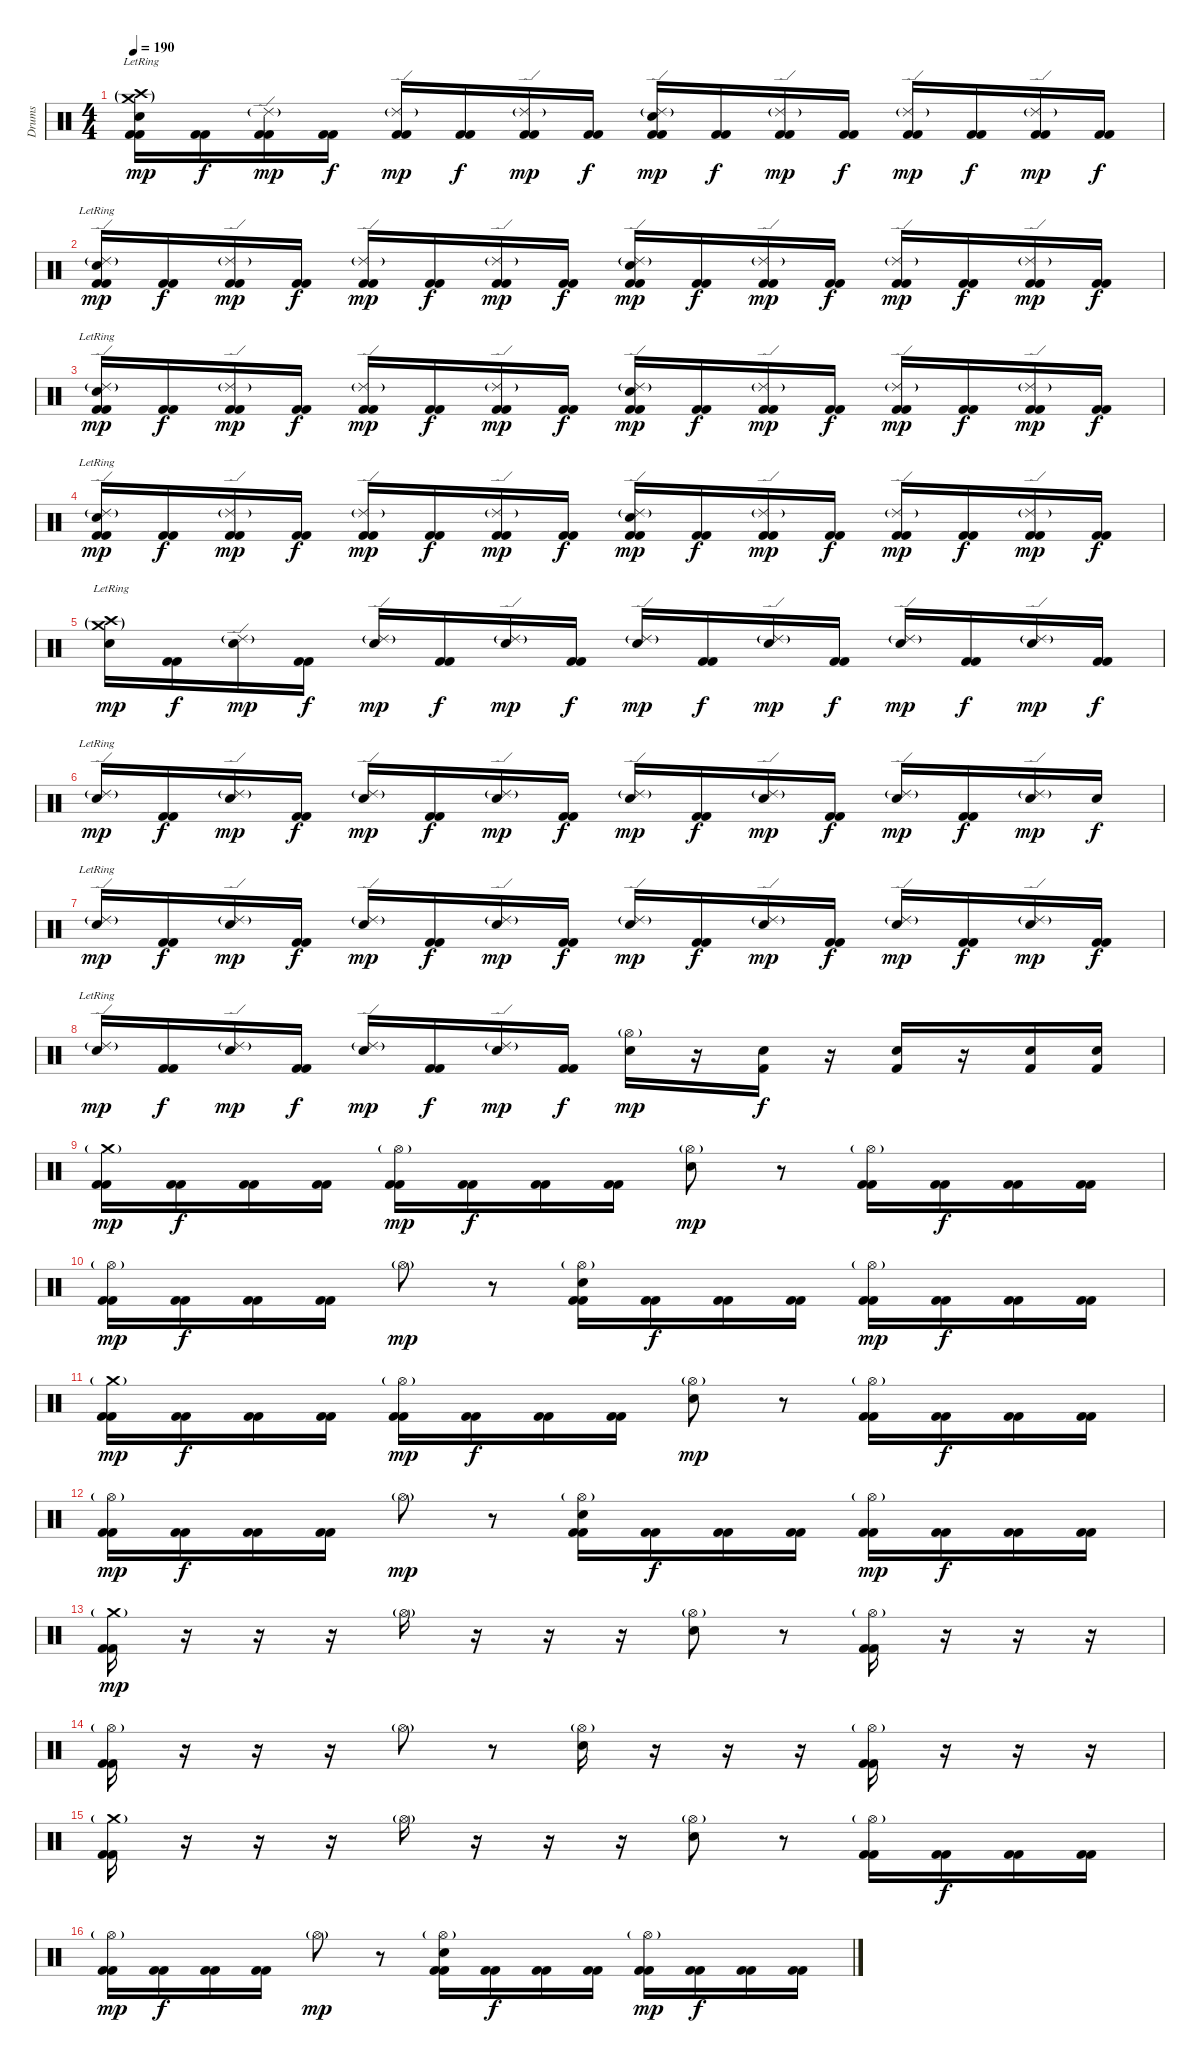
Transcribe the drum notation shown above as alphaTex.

\track ("Drums" "Drums") {instrument percussion}
\staff {score}
\articulation defaults
\ts (4 4)
\tempo 190
\clef neutral
\ks c
("Crash medium (hit)"{g lr} "Crash high (hit)"{g} "Kick (hit) 2" "Kick (hit) 2" "Electric Snare (hit)").16{dy mp} ("Kick (hit) 2" "Kick (hit) 2").16{dy f} ("Ride (edge) 2"{g} "Kick (hit) 2" "Kick (hit) 2").16{dy mp} ("Kick (hit) 2" "Kick (hit) 2").16{dy f} ("Ride (edge) 2"{g} "Kick (hit) 2" "Kick (hit) 2").16{dy mp} ("Kick (hit) 2" "Kick (hit) 2").16{dy f} ("Ride (edge) 2"{g} "Kick (hit) 2" "Kick (hit) 2").16{dy mp} ("Kick (hit) 2" "Kick (hit) 2").16{dy f} ("Ride (edge) 2"{g} "Kick (hit) 2" "Kick (hit) 2" "Electric Snare (hit)").16{dy mp} ("Kick (hit) 2" "Kick (hit) 2").16{dy f} ("Ride (edge) 2"{g} "Kick (hit) 2" "Kick (hit) 2").16{dy mp} ("Kick (hit) 2" "Kick (hit) 2").16{dy f} ("Ride (edge) 2"{g} "Kick (hit) 2" "Kick (hit) 2").16{dy mp} ("Kick (hit) 2" "Kick (hit) 2").16{dy f} ("Ride (edge) 2"{g} "Kick (hit) 2" "Kick (hit) 2").16{dy mp} ("Kick (hit) 2" "Kick (hit) 2").16{dy f} |
("Ride (edge) 2"{g lr} "Kick (hit) 2" "Kick (hit) 2" "Electric Snare (hit)").16{dy mp} ("Kick (hit) 2" "Kick (hit) 2").16{dy f} ("Ride (edge) 2"{g} "Kick (hit) 2" "Kick (hit) 2").16{dy mp} ("Kick (hit) 2" "Kick (hit) 2").16{dy f} ("Ride (edge) 2"{g} "Kick (hit) 2" "Kick (hit) 2").16{dy mp} ("Kick (hit) 2" "Kick (hit) 2").16{dy f} ("Ride (edge) 2"{g} "Kick (hit) 2" "Kick (hit) 2").16{dy mp} ("Kick (hit) 2" "Kick (hit) 2").16{dy f} ("Ride (edge) 2"{g} "Kick (hit) 2" "Kick (hit) 2" "Electric Snare (hit)").16{dy mp} ("Kick (hit) 2" "Kick (hit) 2").16{dy f} ("Ride (edge) 2"{g} "Kick (hit) 2" "Kick (hit) 2").16{dy mp} ("Kick (hit) 2" "Kick (hit) 2").16{dy f} ("Ride (edge) 2"{g} "Kick (hit) 2" "Kick (hit) 2").16{dy mp} ("Kick (hit) 2" "Kick (hit) 2").16{dy f} ("Ride (edge) 2"{g} "Kick (hit) 2" "Kick (hit) 2").16{dy mp} ("Kick (hit) 2" "Kick (hit) 2").16{dy f} |
("Ride (edge) 2"{g lr} "Kick (hit) 2" "Kick (hit) 2" "Electric Snare (hit)").16{dy mp} ("Kick (hit) 2" "Kick (hit) 2").16{dy f} ("Ride (edge) 2"{g} "Kick (hit) 2" "Kick (hit) 2").16{dy mp} ("Kick (hit) 2" "Kick (hit) 2").16{dy f} ("Ride (edge) 2"{g} "Kick (hit) 2" "Kick (hit) 2").16{dy mp} ("Kick (hit) 2" "Kick (hit) 2").16{dy f} ("Ride (edge) 2"{g} "Kick (hit) 2" "Kick (hit) 2").16{dy mp} ("Kick (hit) 2" "Kick (hit) 2").16{dy f} ("Ride (edge) 2"{g} "Kick (hit) 2" "Kick (hit) 2" "Electric Snare (hit)").16{dy mp} ("Kick (hit) 2" "Kick (hit) 2").16{dy f} ("Ride (edge) 2"{g} "Kick (hit) 2" "Kick (hit) 2").16{dy mp} ("Kick (hit) 2" "Kick (hit) 2").16{dy f} ("Ride (edge) 2"{g} "Kick (hit) 2" "Kick (hit) 2").16{dy mp} ("Kick (hit) 2" "Kick (hit) 2").16{dy f} ("Ride (edge) 2"{g} "Kick (hit) 2" "Kick (hit) 2").16{dy mp} ("Kick (hit) 2" "Kick (hit) 2").16{dy f} |
("Ride (edge) 2"{g lr} "Kick (hit) 2" "Kick (hit) 2" "Electric Snare (hit)").16{dy mp} ("Kick (hit) 2" "Kick (hit) 2").16{dy f} ("Ride (edge) 2"{g} "Kick (hit) 2" "Kick (hit) 2").16{dy mp} ("Kick (hit) 2" "Kick (hit) 2").16{dy f} ("Ride (edge) 2"{g} "Kick (hit) 2" "Kick (hit) 2").16{dy mp} ("Kick (hit) 2" "Kick (hit) 2").16{dy f} ("Ride (edge) 2"{g} "Kick (hit) 2" "Kick (hit) 2").16{dy mp} ("Kick (hit) 2" "Kick (hit) 2").16{dy f} ("Ride (edge) 2"{g} "Kick (hit) 2" "Kick (hit) 2" "Electric Snare (hit)").16{dy mp} ("Kick (hit) 2" "Kick (hit) 2").16{dy f} ("Ride (edge) 2"{g} "Kick (hit) 2" "Kick (hit) 2").16{dy mp} ("Kick (hit) 2" "Kick (hit) 2").16{dy f} ("Ride (edge) 2"{g} "Kick (hit) 2" "Kick (hit) 2").16{dy mp} ("Kick (hit) 2" "Kick (hit) 2").16{dy f} ("Ride (edge) 2"{g} "Kick (hit) 2" "Kick (hit) 2").16{dy mp} ("Kick (hit) 2" "Kick (hit) 2").16{dy f} |
("Crash medium (hit)"{g lr} "Crash high (hit)"{g} "Electric Snare (hit)").16{dy mp} ("Kick (hit) 2" "Kick (hit) 2").16{dy f} ("Ride (edge) 2"{g} "Electric Snare (hit)").16{dy mp} ("Kick (hit) 2" "Kick (hit) 2").16{dy f} ("Ride (edge) 2"{g} "Electric Snare (hit)").16{dy mp} ("Kick (hit) 2" "Kick (hit) 2").16{dy f} ("Ride (edge) 2"{g} "Electric Snare (hit)").16{dy mp} ("Kick (hit) 2" "Kick (hit) 2").16{dy f} ("Ride (edge) 2"{g} "Electric Snare (hit)").16{dy mp} ("Kick (hit) 2" "Kick (hit) 2").16{dy f} ("Ride (edge) 2"{g} "Electric Snare (hit)").16{dy mp} ("Kick (hit) 2" "Kick (hit) 2").16{dy f} ("Ride (edge) 2"{g} "Electric Snare (hit)").16{dy mp} ("Kick (hit) 2" "Kick (hit) 2").16{dy f} ("Ride (edge) 2"{g} "Electric Snare (hit)").16{dy mp} ("Kick (hit) 2" "Kick (hit) 2").16{dy f} |
("Ride (edge) 2"{g lr} "Electric Snare (hit)").16{dy mp} ("Kick (hit) 2" "Kick (hit) 2").16{dy f} ("Ride (edge) 2"{g} "Electric Snare (hit)").16{dy mp} ("Kick (hit) 2" "Kick (hit) 2").16{dy f} ("Ride (edge) 2"{g} "Electric Snare (hit)").16{dy mp} ("Kick (hit) 2" "Kick (hit) 2").16{dy f} ("Ride (edge) 2"{g} "Electric Snare (hit)").16{dy mp} ("Kick (hit) 2" "Kick (hit) 2").16{dy f} ("Ride (edge) 2"{g} "Electric Snare (hit)").16{dy mp} ("Kick (hit) 2" "Kick (hit) 2").16{dy f} ("Ride (edge) 2"{g} "Electric Snare (hit)").16{dy mp} ("Kick (hit) 2" "Kick (hit) 2").16{dy f} ("Ride (edge) 2"{g} "Electric Snare (hit)").16{dy mp} ("Kick (hit) 2" "Kick (hit) 2").16{dy f} ("Ride (edge) 2"{g} "Electric Snare (hit)").16{dy mp} "Electric Snare (hit)".16{dy f} |
("Ride (edge) 2"{g lr} "Electric Snare (hit)").16{dy mp} ("Kick (hit) 2" "Kick (hit) 2").16{dy f} ("Ride (edge) 2"{g} "Electric Snare (hit)").16{dy mp} ("Kick (hit) 2" "Kick (hit) 2").16{dy f} ("Ride (edge) 2"{g} "Electric Snare (hit)").16{dy mp} ("Kick (hit) 2" "Kick (hit) 2").16{dy f} ("Ride (edge) 2"{g} "Electric Snare (hit)").16{dy mp} ("Kick (hit) 2" "Kick (hit) 2").16{dy f} ("Ride (edge) 2"{g} "Electric Snare (hit)").16{dy mp} ("Kick (hit) 2" "Kick (hit) 2").16{dy f} ("Ride (edge) 2"{g} "Electric Snare (hit)").16{dy mp} ("Kick (hit) 2" "Kick (hit) 2").16{dy f} ("Ride (edge) 2"{g} "Electric Snare (hit)").16{dy mp} ("Kick (hit) 2" "Kick (hit) 2").16{dy f} ("Ride (edge) 2"{g} "Electric Snare (hit)").16{dy mp} ("Kick (hit) 2" "Kick (hit) 2").16{dy f} |
("Ride (edge) 2"{g lr} "Electric Snare (hit)").16{dy mp} ("Kick (hit) 2" "Kick (hit) 2").16{dy f} ("Ride (edge) 2"{g} "Electric Snare (hit)").16{dy mp} ("Kick (hit) 2" "Kick (hit) 2").16{dy f} ("Ride (edge) 2"{g} "Electric Snare (hit)").16{dy mp} ("Kick (hit) 2" "Kick (hit) 2").16{dy f} ("Ride (edge) 2"{g} "Electric Snare (hit)").16{dy mp} ("Kick (hit) 2" "Kick (hit) 2").16{dy f} ("Hi-Hat (open)"{g} "Electric Snare (hit)").16{dy mp} r.16 ("Kick (hit) 2" "Electric Snare (hit)").16{dy f} r.16 ("Kick (hit) 2" "Electric Snare (hit)").16 r.16 ("Kick (hit) 2" "Electric Snare (hit)").16 ("Kick (hit) 2" "Electric Snare (hit)").16 |
("Crash medium (hit)"{g} "Kick (hit) 2" "Kick (hit) 2").16{dy mp} ("Kick (hit) 2" "Kick (hit) 2").16{dy f} ("Kick (hit) 2" "Kick (hit) 2").16 ("Kick (hit) 2" "Kick (hit) 2").16 ("Hi-Hat (open)"{g} "Kick (hit) 2" "Kick (hit) 2").16{dy mp} ("Kick (hit) 2" "Kick (hit) 2").16{dy f} ("Kick (hit) 2" "Kick (hit) 2").16 ("Kick (hit) 2" "Kick (hit) 2").16 ("Hi-Hat (open)"{g} "Electric Snare (hit)").8{dy mp} r.8 ("Hi-Hat (open)"{g} "Kick (hit) 2" "Kick (hit) 2").16 ("Kick (hit) 2" "Kick (hit) 2").16{dy f} ("Kick (hit) 2" "Kick (hit) 2").16 ("Kick (hit) 2" "Kick (hit) 2").16 |
("Hi-Hat (open)"{g} "Kick (hit) 2" "Kick (hit) 2").16{dy mp} ("Kick (hit) 2" "Kick (hit) 2").16{dy f} ("Kick (hit) 2" "Kick (hit) 2").16 ("Kick (hit) 2" "Kick (hit) 2").16 "Hi-Hat (open)"{g}.8{dy mp} r.8 ("Hi-Hat (open)"{g} "Kick (hit) 2" "Electric Snare (hit)" "Kick (hit) 2").16 ("Kick (hit) 2" "Kick (hit) 2").16{dy f} ("Kick (hit) 2" "Kick (hit) 2").16 ("Kick (hit) 2" "Kick (hit) 2").16 ("Hi-Hat (open)"{g} "Kick (hit) 2" "Kick (hit) 2").16{dy mp} ("Kick (hit) 2" "Kick (hit) 2").16{dy f} ("Kick (hit) 2" "Kick (hit) 2").16 ("Kick (hit) 2" "Kick (hit) 2").16 |
("Crash medium (hit)"{g} "Kick (hit) 2" "Kick (hit) 2").16{dy mp} ("Kick (hit) 2" "Kick (hit) 2").16{dy f} ("Kick (hit) 2" "Kick (hit) 2").16 ("Kick (hit) 2" "Kick (hit) 2").16 ("Hi-Hat (open)"{g} "Kick (hit) 2" "Kick (hit) 2").16{dy mp} ("Kick (hit) 2" "Kick (hit) 2").16{dy f} ("Kick (hit) 2" "Kick (hit) 2").16 ("Kick (hit) 2" "Kick (hit) 2").16 ("Hi-Hat (open)"{g} "Electric Snare (hit)").8{dy mp} r.8 ("Hi-Hat (open)"{g} "Kick (hit) 2" "Kick (hit) 2").16 ("Kick (hit) 2" "Kick (hit) 2").16{dy f} ("Kick (hit) 2" "Kick (hit) 2").16 ("Kick (hit) 2" "Kick (hit) 2").16 |
("Hi-Hat (open)"{g} "Kick (hit) 2" "Kick (hit) 2").16{dy mp} ("Kick (hit) 2" "Kick (hit) 2").16{dy f} ("Kick (hit) 2" "Kick (hit) 2").16 ("Kick (hit) 2" "Kick (hit) 2").16 "Hi-Hat (open)"{g}.8{dy mp} r.8 ("Hi-Hat (open)"{g} "Kick (hit) 2" "Electric Snare (hit)" "Kick (hit) 2").16 ("Kick (hit) 2" "Kick (hit) 2").16{dy f} ("Kick (hit) 2" "Kick (hit) 2").16 ("Kick (hit) 2" "Kick (hit) 2").16 ("Hi-Hat (open)"{g} "Kick (hit) 2" "Kick (hit) 2").16{dy mp} ("Kick (hit) 2" "Kick (hit) 2").16{dy f} ("Kick (hit) 2" "Kick (hit) 2").16 ("Kick (hit) 2" "Kick (hit) 2").16 |
("Crash medium (hit)"{g} "Kick (hit) 2" "Kick (hit) 2").16{dy mp} r.16 r.16 r.16 "Hi-Hat (open)"{g}.16 r.16 r.16 r.16 ("Hi-Hat (open)"{g} "Electric Snare (hit)").8 r.8 ("Hi-Hat (open)"{g} "Kick (hit) 2" "Kick (hit) 2").16 r.16 r.16 r.16 |
("Hi-Hat (open)"{g} "Kick (hit) 2" "Kick (hit) 2").16 r.16 r.16 r.16 "Hi-Hat (open)"{g}.8 r.8 ("Hi-Hat (open)"{g} "Electric Snare (hit)").16 r.16 r.16 r.16 ("Hi-Hat (open)"{g} "Kick (hit) 2" "Kick (hit) 2").16 r.16 r.16 r.16 |
("Crash medium (hit)"{g} "Kick (hit) 2" "Kick (hit) 2").16 r.16 r.16 r.16 "Hi-Hat (open)"{g}.16 r.16 r.16 r.16 ("Hi-Hat (open)"{g} "Electric Snare (hit)").8 r.8 ("Hi-Hat (open)"{g} "Kick (hit) 2" "Kick (hit) 2").16 ("Kick (hit) 2" "Kick (hit) 2").16{dy f} ("Kick (hit) 2" "Kick (hit) 2").16 ("Kick (hit) 2" "Kick (hit) 2").16 |
("Hi-Hat (open)"{g} "Kick (hit) 2" "Kick (hit) 2").16{dy mp} ("Kick (hit) 2" "Kick (hit) 2").16{dy f} ("Kick (hit) 2" "Kick (hit) 2").16 ("Kick (hit) 2" "Kick (hit) 2").16 "Hi-Hat (open)"{g}.8{dy mp} r.8 ("Hi-Hat (open)"{g} "Kick (hit) 2" "Electric Snare (hit)" "Kick (hit) 2").16 ("Kick (hit) 2" "Kick (hit) 2").16{dy f} ("Kick (hit) 2" "Kick (hit) 2").16 ("Kick (hit) 2" "Kick (hit) 2").16 ("Hi-Hat (open)"{g} "Kick (hit) 2" "Kick (hit) 2").16{dy mp} ("Kick (hit) 2" "Kick (hit) 2").16{dy f} ("Kick (hit) 2" "Kick (hit) 2").16 ("Kick (hit) 2" "Kick (hit) 2").16
